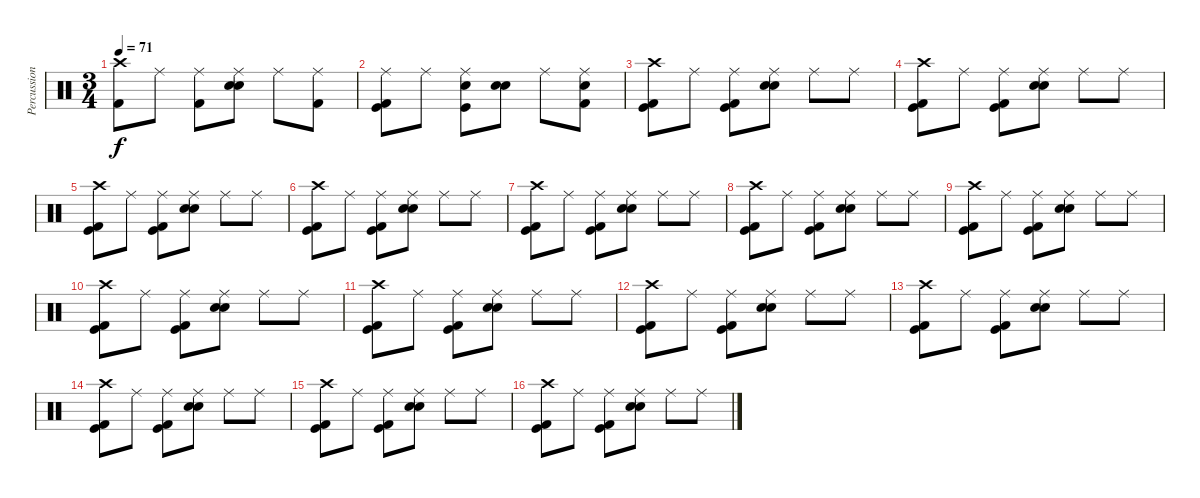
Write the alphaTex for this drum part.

\track ("Percussion" "Percussion") {instrument percussion}
\staff {score}
\articulation defaults
\ts (3 4)
\tempo 71
\clef neutral
\ks c
("Kick (hit) 2" "Crash high (hit)").8{dy f} "Ride (middle)".8 ("Kick (hit) 2" "Ride (middle)").8 ("Ride (middle)" "Electric Snare (hit)" "Snare (hit) 2").8 "Ride (middle)".8 ("Kick (hit) 2" "Ride (middle)").8 |
("Ride (middle)" "Kick (hit) 2" "Kick (hit)").8 "Ride (middle)".8 ("Kick (hit)" "Snare (hit) 2" "Ride (middle)").8 ("Electric Snare (hit)" "Snare (hit) 2").8 "Ride (middle)".8 ("Kick (hit) 2" "Snare (hit) 2" "Ride (middle)").8 |
("Kick (hit)" "Kick (hit) 2" "Crash high (hit)").8 "Ride (middle)".8 ("Kick (hit) 2" "Kick (hit)" "Ride (middle)").8 ("Ride (middle)" "Electric Snare (hit)" "Snare (hit) 2").8 "Ride (middle)".8 "Ride (middle)".8 |
("Kick (hit)" "Kick (hit) 2" "Crash high (hit)").8 "Ride (middle)".8 ("Kick (hit) 2" "Kick (hit)" "Ride (middle)").8 ("Ride (middle)" "Electric Snare (hit)" "Snare (hit) 2").8 "Ride (middle)".8 "Ride (middle)".8 |
("Kick (hit)" "Kick (hit) 2" "Crash high (hit)").8 "Ride (middle)".8 ("Kick (hit) 2" "Kick (hit)" "Ride (middle)").8 ("Ride (middle)" "Electric Snare (hit)" "Snare (hit) 2").8 "Ride (middle)".8 "Ride (middle)".8 |
("Kick (hit)" "Kick (hit) 2" "Crash high (hit)").8 "Ride (middle)".8 ("Kick (hit) 2" "Kick (hit)" "Ride (middle)").8 ("Ride (middle)" "Electric Snare (hit)" "Snare (hit) 2").8 "Ride (middle)".8 "Ride (middle)".8 |
("Kick (hit)" "Kick (hit) 2" "Crash high (hit)").8 "Ride (middle)".8 ("Kick (hit) 2" "Kick (hit)" "Ride (middle)").8 ("Ride (middle)" "Electric Snare (hit)" "Snare (hit) 2").8 "Ride (middle)".8 "Ride (middle)".8 |
("Kick (hit)" "Kick (hit) 2" "Crash high (hit)").8 "Ride (middle)".8 ("Kick (hit) 2" "Kick (hit)" "Ride (middle)").8 ("Ride (middle)" "Electric Snare (hit)" "Snare (hit) 2").8 "Ride (middle)".8 "Ride (middle)".8 |
("Kick (hit)" "Kick (hit) 2" "Crash high (hit)").8 "Ride (middle)".8 ("Kick (hit) 2" "Kick (hit)" "Ride (middle)").8 ("Ride (middle)" "Electric Snare (hit)" "Snare (hit) 2").8 "Ride (middle)".8 "Ride (middle)".8 |
("Kick (hit)" "Kick (hit) 2" "Crash high (hit)").8 "Ride (middle)".8 ("Kick (hit) 2" "Kick (hit)" "Ride (middle)").8 ("Ride (middle)" "Electric Snare (hit)" "Snare (hit) 2").8 "Ride (middle)".8 "Ride (middle)".8 |
("Kick (hit)" "Kick (hit) 2" "Crash high (hit)").8 "Ride (middle)".8 ("Kick (hit) 2" "Kick (hit)" "Ride (middle)").8 ("Ride (middle)" "Electric Snare (hit)" "Snare (hit) 2").8 "Ride (middle)".8 "Ride (middle)".8 |
("Kick (hit)" "Kick (hit) 2" "Crash high (hit)").8 "Ride (middle)".8 ("Kick (hit) 2" "Kick (hit)" "Ride (middle)").8 ("Ride (middle)" "Electric Snare (hit)" "Snare (hit) 2").8 "Ride (middle)".8 "Ride (middle)".8 |
("Kick (hit)" "Kick (hit) 2" "Crash high (hit)").8 "Ride (middle)".8 ("Kick (hit) 2" "Kick (hit)" "Ride (middle)").8 ("Ride (middle)" "Electric Snare (hit)" "Snare (hit) 2").8 "Ride (middle)".8 "Ride (middle)".8 |
("Kick (hit)" "Kick (hit) 2" "Crash high (hit)").8 "Ride (middle)".8 ("Kick (hit) 2" "Kick (hit)" "Ride (middle)").8 ("Ride (middle)" "Electric Snare (hit)" "Snare (hit) 2").8 "Ride (middle)".8 "Ride (middle)".8 |
("Kick (hit)" "Kick (hit) 2" "Crash high (hit)").8 "Ride (middle)".8 ("Kick (hit) 2" "Kick (hit)" "Ride (middle)").8 ("Ride (middle)" "Electric Snare (hit)" "Snare (hit) 2").8 "Ride (middle)".8 "Ride (middle)".8 |
("Kick (hit)" "Kick (hit) 2" "Crash high (hit)").8 "Ride (middle)".8 ("Kick (hit) 2" "Kick (hit)" "Ride (middle)").8 ("Ride (middle)" "Electric Snare (hit)" "Snare (hit) 2").8 "Ride (middle)".8 "Ride (middle)".8
